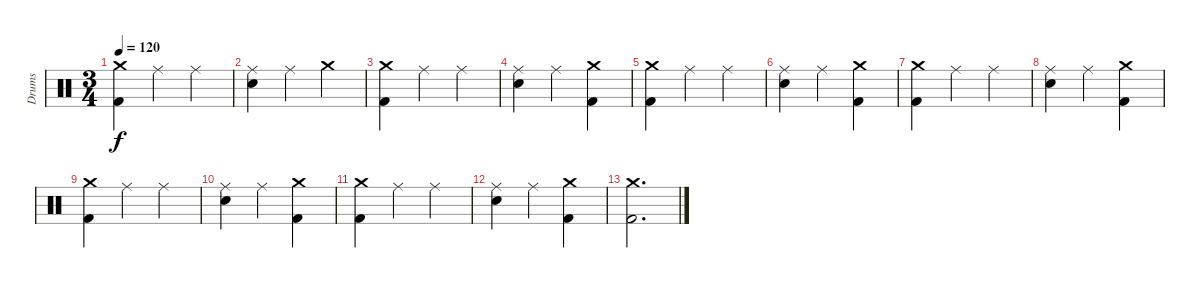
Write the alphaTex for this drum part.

\track ("Drums" "Drums") {instrument percussion}
\staff {score}
\articulation defaults
\ts (3 4)
\tempo 120
\clef neutral
\ks c
("Crash medium (hit)" "Kick (hit) 2").4{dy f} "Ride (middle)".4 "Ride (middle)".4 |
("Ride (middle)" "Electric Snare (hit)").4 "Ride (middle)".4 "Crash medium (hit)".4 |
("Crash medium (hit)" "Kick (hit) 2").4 "Ride (middle)".4 "Ride (middle)".4 |
("Ride (middle)" "Electric Snare (hit)").4 "Ride (middle)".4 ("Crash medium (hit)" "Kick (hit) 2").4 |
("Crash medium (hit)" "Kick (hit) 2").4 "Ride (middle)".4 "Ride (middle)".4 |
("Ride (middle)" "Electric Snare (hit)").4 "Ride (middle)".4 ("Crash medium (hit)" "Kick (hit) 2").4 |
("Crash medium (hit)" "Kick (hit) 2").4 "Ride (middle)".4 "Ride (middle)".4 |
("Ride (middle)" "Electric Snare (hit)").4 "Ride (middle)".4 ("Crash medium (hit)" "Kick (hit) 2").4 |
("Crash medium (hit)" "Kick (hit) 2").4 "Ride (middle)".4 "Ride (middle)".4 |
("Ride (middle)" "Electric Snare (hit)").4 "Ride (middle)".4 ("Crash medium (hit)" "Kick (hit) 2").4 |
("Crash medium (hit)" "Kick (hit) 2").4 "Ride (middle)".4 "Ride (middle)".4 |
("Ride (middle)" "Electric Snare (hit)").4 "Ride (middle)".4 ("Crash medium (hit)" "Kick (hit) 2").4 |
("Crash medium (hit)" "Kick (hit) 2").2{d}
